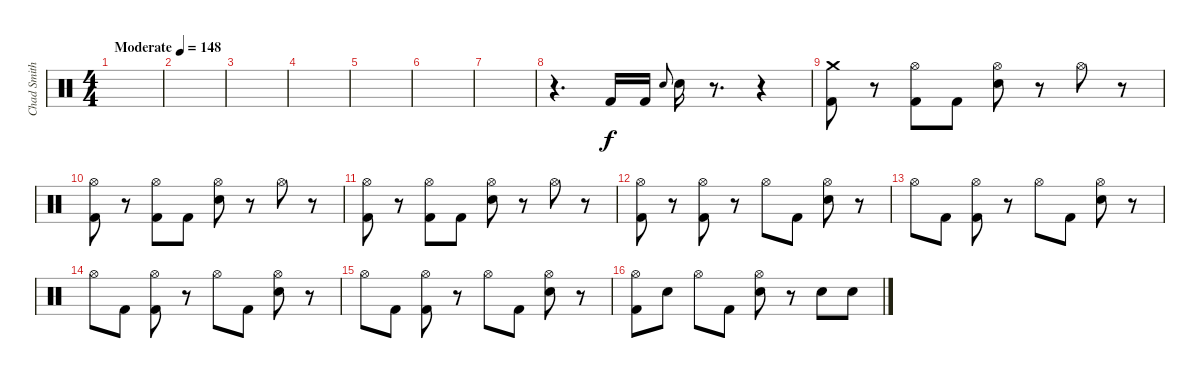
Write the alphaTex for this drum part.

\track ("Chad Smith" "Chad Smith") {instrument percussion}
\staff {score}
\articulation defaults
\ts (4 4)
\tempo (148 "Moderate")
\clef neutral
\ks c
|
|
|
|
|
|
|
r.4{d} "Kick (hit) 2".16 "Kick (hit) 2".16 "Snare (hit) 2".8{gr onbeat} "Snare (hit) 2".16 r.8{d} r.4 |
("Crash medium (hit)" "Kick (hit) 2").8 r.8 ("Hi-Hat (open)" "Kick (hit) 2").8 "Kick (hit) 2".8 ("Hi-Hat (open)" "Snare (hit) 2").8 r.8 "Hi-Hat (open)".8 r.8 |
("Hi-Hat (open)" "Kick (hit) 2").8 r.8 ("Hi-Hat (open)" "Kick (hit) 2").8 "Kick (hit) 2".8 ("Hi-Hat (open)" "Snare (hit) 2").8 r.8 "Hi-Hat (open)".8 r.8 |
("Hi-Hat (open)" "Kick (hit) 2").8 r.8 ("Hi-Hat (open)" "Kick (hit) 2").8 "Kick (hit) 2".8 ("Hi-Hat (open)" "Snare (hit) 2").8 r.8 "Hi-Hat (open)".8 r.8 |
("Hi-Hat (open)" "Kick (hit) 2").8 r.8 ("Hi-Hat (open)" "Kick (hit) 2").8 r.8 "Hi-Hat (open)".8 "Kick (hit) 2".8 ("Hi-Hat (open)" "Snare (hit) 2").8 r.8 |
"Hi-Hat (open)".8 "Kick (hit) 2".8 ("Hi-Hat (open)" "Kick (hit) 2").8 r.8 "Hi-Hat (open)".8 "Kick (hit) 2".8 ("Hi-Hat (open)" "Snare (hit) 2").8 r.8 |
"Hi-Hat (open)".8 "Kick (hit) 2".8 ("Hi-Hat (open)" "Kick (hit) 2").8 r.8 "Hi-Hat (open)".8 "Kick (hit) 2".8 ("Hi-Hat (open)" "Snare (hit) 2").8 r.8 |
"Hi-Hat (open)".8 "Kick (hit) 2".8 ("Hi-Hat (open)" "Kick (hit) 2").8 r.8 "Hi-Hat (open)".8 "Kick (hit) 2".8 ("Hi-Hat (open)" "Snare (hit) 2").8 r.8 |
("Hi-Hat (open)" "Kick (hit) 2").8 "Snare (hit) 2".8 "Hi-Hat (open)".8 "Kick (hit) 2".8 ("Hi-Hat (open)" "Snare (hit) 2").8 r.8 "Snare (hit) 2".8 "Snare (hit) 2".8
